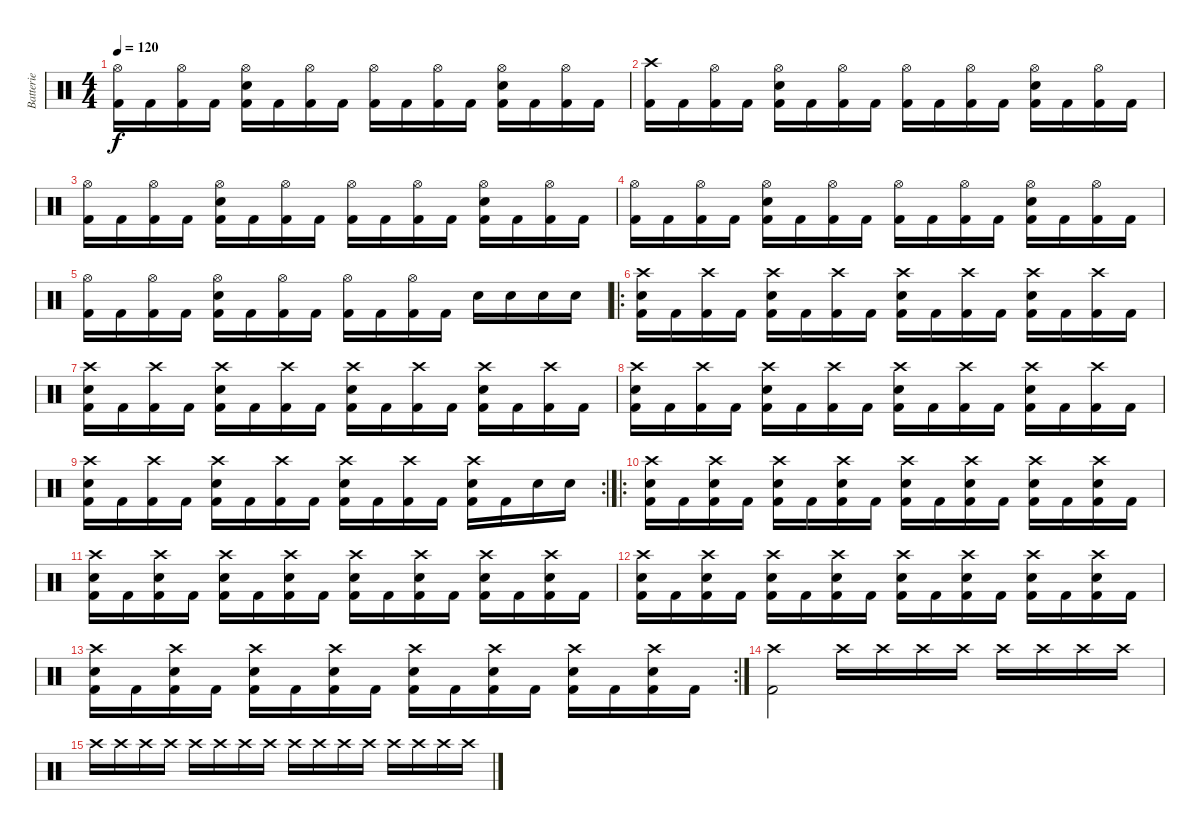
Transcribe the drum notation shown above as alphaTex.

\track ("Batterie" "Batterie") {instrument percussion}
\staff {score}
\articulation defaults
\ts (4 4)
\tempo 120
\clef neutral
\ks c
("Hi-Hat (open)" "Kick (hit) 2").16{dy f} "Kick (hit) 2".16 ("Hi-Hat (open)" "Kick (hit) 2").16 "Kick (hit) 2".16 ("Hi-Hat (open)" "Snare (hit) 2" "Kick (hit) 2").16 "Kick (hit) 2".16 ("Hi-Hat (open)" "Kick (hit) 2").16 "Kick (hit) 2".16 ("Hi-Hat (open)" "Kick (hit) 2").16 "Kick (hit) 2".16 ("Hi-Hat (open)" "Kick (hit) 2").16 "Kick (hit) 2".16 ("Hi-Hat (open)" "Snare (hit) 2" "Kick (hit) 2").16 "Kick (hit) 2".16 ("Hi-Hat (open)" "Kick (hit) 2").16 "Kick (hit) 2".16 |
("Crash high (hit)" "Kick (hit) 2").16 "Kick (hit) 2".16 ("Hi-Hat (open)" "Kick (hit) 2").16 "Kick (hit) 2".16 ("Hi-Hat (open)" "Snare (hit) 2" "Kick (hit) 2").16 "Kick (hit) 2".16 ("Hi-Hat (open)" "Kick (hit) 2").16 "Kick (hit) 2".16 ("Hi-Hat (open)" "Kick (hit) 2").16 "Kick (hit) 2".16 ("Hi-Hat (open)" "Kick (hit) 2").16 "Kick (hit) 2".16 ("Hi-Hat (open)" "Snare (hit) 2" "Kick (hit) 2").16 "Kick (hit) 2".16 ("Hi-Hat (open)" "Kick (hit) 2").16 "Kick (hit) 2".16 |
("Hi-Hat (open)" "Kick (hit) 2").16 "Kick (hit) 2".16 ("Hi-Hat (open)" "Kick (hit) 2").16 "Kick (hit) 2".16 ("Hi-Hat (open)" "Snare (hit) 2" "Kick (hit) 2").16 "Kick (hit) 2".16 ("Hi-Hat (open)" "Kick (hit) 2").16 "Kick (hit) 2".16 ("Hi-Hat (open)" "Kick (hit) 2").16 "Kick (hit) 2".16 ("Hi-Hat (open)" "Kick (hit) 2").16 "Kick (hit) 2".16 ("Hi-Hat (open)" "Snare (hit) 2" "Kick (hit) 2").16 "Kick (hit) 2".16 ("Hi-Hat (open)" "Kick (hit) 2").16 "Kick (hit) 2".16 |
("Hi-Hat (open)" "Kick (hit) 2").16 "Kick (hit) 2".16 ("Hi-Hat (open)" "Kick (hit) 2").16 "Kick (hit) 2".16 ("Hi-Hat (open)" "Snare (hit) 2" "Kick (hit) 2").16 "Kick (hit) 2".16 ("Hi-Hat (open)" "Kick (hit) 2").16 "Kick (hit) 2".16 ("Hi-Hat (open)" "Kick (hit) 2").16 "Kick (hit) 2".16 ("Hi-Hat (open)" "Kick (hit) 2").16 "Kick (hit) 2".16 ("Hi-Hat (open)" "Snare (hit) 2" "Kick (hit) 2").16 "Kick (hit) 2".16 ("Hi-Hat (open)" "Kick (hit) 2").16 "Kick (hit) 2".16 |
("Hi-Hat (open)" "Kick (hit) 2").16 "Kick (hit) 2".16 ("Hi-Hat (open)" "Kick (hit) 2").16 "Kick (hit) 2".16 ("Hi-Hat (open)" "Snare (hit) 2" "Kick (hit) 2").16 "Kick (hit) 2".16 ("Hi-Hat (open)" "Kick (hit) 2").16 "Kick (hit) 2".16 ("Hi-Hat (open)" "Kick (hit) 2").16 "Kick (hit) 2".16 ("Hi-Hat (open)" "Kick (hit) 2").16 "Kick (hit) 2".16 "Snare (hit) 2".16 "Snare (hit) 2".16 "Snare (hit) 2".16 "Snare (hit) 2".16 |
\ro
("Crash high (hit)" "Snare (hit) 2" "Kick (hit) 2").16 "Kick (hit) 2".16 ("Crash high (hit)" "Kick (hit) 2").16 "Kick (hit) 2".16 ("Crash high (hit)" "Snare (hit) 2" "Kick (hit) 2").16 "Kick (hit) 2".16 ("Crash high (hit)" "Kick (hit) 2").16 "Kick (hit) 2".16 ("Crash high (hit)" "Snare (hit) 2" "Kick (hit) 2").16 "Kick (hit) 2".16 ("Crash high (hit)" "Kick (hit) 2").16 "Kick (hit) 2".16 ("Crash high (hit)" "Snare (hit) 2" "Kick (hit) 2").16 "Kick (hit) 2".16 ("Crash high (hit)" "Kick (hit) 2").16 "Kick (hit) 2".16 |
("Crash high (hit)" "Snare (hit) 2" "Kick (hit) 2").16 "Kick (hit) 2".16 ("Crash high (hit)" "Kick (hit) 2").16 "Kick (hit) 2".16 ("Crash high (hit)" "Snare (hit) 2" "Kick (hit) 2").16 "Kick (hit) 2".16 ("Crash high (hit)" "Kick (hit) 2").16 "Kick (hit) 2".16 ("Crash high (hit)" "Snare (hit) 2" "Kick (hit) 2").16 "Kick (hit) 2".16 ("Crash high (hit)" "Kick (hit) 2").16 "Kick (hit) 2".16 ("Crash high (hit)" "Snare (hit) 2" "Kick (hit) 2").16 "Kick (hit) 2".16 ("Crash high (hit)" "Kick (hit) 2").16 "Kick (hit) 2".16 |
("Crash high (hit)" "Snare (hit) 2" "Kick (hit) 2").16 "Kick (hit) 2".16 ("Crash high (hit)" "Kick (hit) 2").16 "Kick (hit) 2".16 ("Crash high (hit)" "Snare (hit) 2" "Kick (hit) 2").16 "Kick (hit) 2".16 ("Crash high (hit)" "Kick (hit) 2").16 "Kick (hit) 2".16 ("Crash high (hit)" "Snare (hit) 2" "Kick (hit) 2").16 "Kick (hit) 2".16 ("Crash high (hit)" "Kick (hit) 2").16 "Kick (hit) 2".16 ("Crash high (hit)" "Snare (hit) 2" "Kick (hit) 2").16 "Kick (hit) 2".16 ("Crash high (hit)" "Kick (hit) 2").16 "Kick (hit) 2".16 |
\rc 2
("Crash high (hit)" "Snare (hit) 2" "Kick (hit) 2").16 "Kick (hit) 2".16 ("Crash high (hit)" "Kick (hit) 2").16 "Kick (hit) 2".16 ("Crash high (hit)" "Snare (hit) 2" "Kick (hit) 2").16 "Kick (hit) 2".16 ("Crash high (hit)" "Kick (hit) 2").16 "Kick (hit) 2".16 ("Crash high (hit)" "Snare (hit) 2" "Kick (hit) 2").16 "Kick (hit) 2".16 ("Crash high (hit)" "Kick (hit) 2").16 "Kick (hit) 2".16 ("Crash high (hit)" "Snare (hit) 2" "Kick (hit) 2").16 "Kick (hit) 2".16 "Snare (hit) 2".16 "Snare (hit) 2".16 |
\ro
("Crash high (hit)" "Snare (hit) 2" "Kick (hit) 2").16 "Kick (hit) 2".16 ("Crash high (hit)" "Snare (hit) 2" "Kick (hit) 2").16 "Kick (hit) 2".16 ("Crash high (hit)" "Snare (hit) 2" "Kick (hit) 2").16 "Kick (hit) 2".16 ("Crash high (hit)" "Snare (hit) 2" "Kick (hit) 2").16 "Kick (hit) 2".16 ("Crash high (hit)" "Snare (hit) 2" "Kick (hit) 2").16 "Kick (hit) 2".16 ("Crash high (hit)" "Snare (hit) 2" "Kick (hit) 2").16 "Kick (hit) 2".16 ("Crash high (hit)" "Snare (hit) 2" "Kick (hit) 2").16 "Kick (hit) 2".16 ("Crash high (hit)" "Snare (hit) 2" "Kick (hit) 2").16 "Kick (hit) 2".16 |
("Crash high (hit)" "Snare (hit) 2" "Kick (hit) 2").16 "Kick (hit) 2".16 ("Crash high (hit)" "Snare (hit) 2" "Kick (hit) 2").16 "Kick (hit) 2".16 ("Crash high (hit)" "Snare (hit) 2" "Kick (hit) 2").16 "Kick (hit) 2".16 ("Crash high (hit)" "Snare (hit) 2" "Kick (hit) 2").16 "Kick (hit) 2".16 ("Crash high (hit)" "Snare (hit) 2" "Kick (hit) 2").16 "Kick (hit) 2".16 ("Crash high (hit)" "Snare (hit) 2" "Kick (hit) 2").16 "Kick (hit) 2".16 ("Crash high (hit)" "Snare (hit) 2" "Kick (hit) 2").16 "Kick (hit) 2".16 ("Crash high (hit)" "Snare (hit) 2" "Kick (hit) 2").16 "Kick (hit) 2".16 |
("Crash high (hit)" "Snare (hit) 2" "Kick (hit) 2").16 "Kick (hit) 2".16 ("Crash high (hit)" "Snare (hit) 2" "Kick (hit) 2").16 "Kick (hit) 2".16 ("Crash high (hit)" "Snare (hit) 2" "Kick (hit) 2").16 "Kick (hit) 2".16 ("Crash high (hit)" "Snare (hit) 2" "Kick (hit) 2").16 "Kick (hit) 2".16 ("Crash high (hit)" "Snare (hit) 2" "Kick (hit) 2").16 "Kick (hit) 2".16 ("Crash high (hit)" "Snare (hit) 2" "Kick (hit) 2").16 "Kick (hit) 2".16 ("Crash high (hit)" "Snare (hit) 2" "Kick (hit) 2").16 "Kick (hit) 2".16 ("Crash high (hit)" "Snare (hit) 2" "Kick (hit) 2").16 "Kick (hit) 2".16 |
\rc 2
("Crash high (hit)" "Snare (hit) 2" "Kick (hit) 2").16 "Kick (hit) 2".16 ("Crash high (hit)" "Snare (hit) 2" "Kick (hit) 2").16 "Kick (hit) 2".16 ("Crash high (hit)" "Snare (hit) 2" "Kick (hit) 2").16 "Kick (hit) 2".16 ("Crash high (hit)" "Snare (hit) 2" "Kick (hit) 2").16 "Kick (hit) 2".16 ("Crash high (hit)" "Snare (hit) 2" "Kick (hit) 2").16 "Kick (hit) 2".16 ("Crash high (hit)" "Snare (hit) 2" "Kick (hit) 2").16 "Kick (hit) 2".16 ("Crash high (hit)" "Snare (hit) 2" "Kick (hit) 2").16 "Kick (hit) 2".16 ("Crash high (hit)" "Snare (hit) 2" "Kick (hit) 2").16 "Kick (hit) 2".16 |
("Crash high (hit)" "Kick (hit) 2").2{volume 0} "Crash high (hit)".16 "Crash high (hit)".16 "Crash high (hit)".16 "Crash high (hit)".16 "Crash high (hit)".16 "Crash high (hit)".16 "Crash high (hit)".16 "Crash high (hit)".16 |
"Crash high (hit)".16 "Crash high (hit)".16 "Crash high (hit)".16 "Crash high (hit)".16 "Crash high (hit)".16 "Crash high (hit)".16 "Crash high (hit)".16 "Crash high (hit)".16 "Crash high (hit)".16 "Crash high (hit)".16 "Crash high (hit)".16 "Crash high (hit)".16 "Crash high (hit)".16 "Crash high (hit)".16 "Crash high (hit)".16 "Crash high (hit)".16
